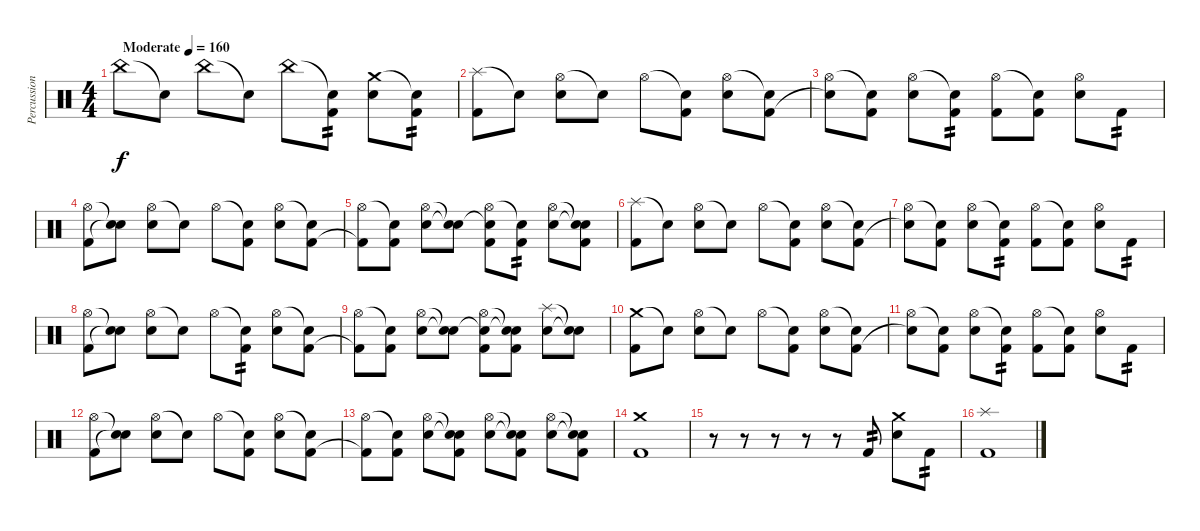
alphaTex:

\track ("Percussion" "Percussion") {instrument percussion}
\staff {score}
\articulation defaults
\ts (4 4)
\tempo (160 "Moderate")
\clef neutral
\ks c "China (hit)".8{dy f} "Snare (hit)"{t}.8 "China (hit)".8 "Snare (hit)"{t}.8 "China (hit)".8
("Snare (hit)"{t} "Kick (hit) 2").8{tp 2} ("Crash medium (hit)" "Electric Snare (hit)").8 ("Snare (hit)"{t} "Kick (hit) 2").8{tp 2} |
("Splash (hit)" "Kick (hit) 2").8 "Snare (hit)"{t}.8 ("Hi-Hat (open)" "Electric Snare (hit)").8 "Snare (hit)"{t}.8 "Hi-Hat (open)".8 ("Snare (hit)"{t} "Kick (hit) 2").8 ("Hi-Hat (open)" "Electric Snare (hit)").8 ("Snare (hit)"{t} "Kick (hit) 2").8 |
("Hi-Hat (open)" "Snare (hit)"{t}).8 ("Snare (hit)"{t} "Kick (hit) 2").8 ("Hi-Hat (open)" "Electric Snare (hit)").8 ("Snare (hit)"{t} "Kick (hit) 2").8{tp 2} ("Hi-Hat (open)" "Kick (hit) 2").8 ("Snare (hit)"{t} "Kick (hit) 2").8 ("Hi-Hat (open)" "Electric Snare (hit)").8 "Kick (hit) 2".8{tp 2} |
("Hi-Hat (open)" "Kick (hit) 2").8 ("Snare (hit)"{t} "Snare (hit)"{t}).8 ("Hi-Hat (open)" "Electric Snare (hit)").8 "Snare (hit)"{t}.8 "Hi-Hat (open)".8 ("Snare (hit)"{t} "Kick (hit) 2").8 ("Hi-Hat (open)" "Electric Snare (hit)").8 ("Snare (hit)"{t} "Kick (hit) 2").8 |
("Hi-Hat (open)" "Kick (hit) 2"{t}).8 ("Snare (hit)"{t} "Kick (hit) 2").8 ("Hi-Hat (open)" "Electric Snare (hit)").8 ("Snare (hit)"{t} "Snare (hit)"{t}).8 ("Hi-Hat (open)" "Snare (hit)"{t} "Kick (hit) 2").8 ("Snare (hit)"{t} "Kick (hit) 2").8{tp 2} ("Hi-Hat (open)" "Electric Snare (hit)").8 ("Snare (hit)"{t} "Snare (hit)"{t} "Kick (hit) 2").8 |
("Splash (hit)" "Kick (hit) 2").8 "Snare (hit)"{t}.8 ("Hi-Hat (open)" "Electric Snare (hit)").8 "Snare (hit)"{t}.8 "Hi-Hat (open)".8 ("Snare (hit)"{t} "Kick (hit) 2").8 ("Hi-Hat (open)" "Electric Snare (hit)").8 ("Snare (hit)"{t} "Kick (hit) 2").8 |
("Hi-Hat (open)" "Snare (hit)"{t}).8 ("Snare (hit)"{t} "Kick (hit) 2").8 ("Hi-Hat (open)" "Electric Snare (hit)").8 ("Snare (hit)"{t} "Kick (hit) 2").8{tp 2} ("Hi-Hat (open)" "Kick (hit) 2").8 ("Snare (hit)"{t} "Kick (hit) 2").8 ("Hi-Hat (open)" "Electric Snare (hit)").8 "Kick (hit) 2".8{tp 2} |
("Hi-Hat (open)" "Kick (hit) 2").8 ("Snare (hit)"{t} "Snare (hit)"{t}).8 ("Hi-Hat (open)" "Electric Snare (hit)").8 "Snare (hit)"{t}.8 "Hi-Hat (open)".8 ("Snare (hit)"{t} "Kick (hit) 2").8{tp 2} ("Hi-Hat (open)" "Electric Snare (hit)").8 ("Snare (hit)"{t} "Kick (hit) 2").8 |
("Hi-Hat (open)" "Kick (hit) 2"{t}).8 ("Snare (hit)"{t} "Kick (hit) 2").8 ("Hi-Hat (open)" "Electric Snare (hit)").8 ("Snare (hit)"{t} "Snare (hit)"{t}).8 ("Hi-Hat (open)" "Snare (hit)"{t} "Kick (hit) 2").8 ("Snare (hit)"{t} "Snare (hit)"{t} "Kick (hit) 2").8 ("Splash (hit)" "Electric Snare (hit)").8 ("Snare (hit)"{t} "Snare (hit)"{t}).8 |
("Crash medium (hit)" "Kick (hit) 2").8 "Snare (hit)"{t}.8 ("Hi-Hat (open)" "Electric Snare (hit)").8 "Snare (hit)"{t}.8 "Hi-Hat (open)".8 ("Snare (hit)"{t} "Kick (hit) 2").8 ("Hi-Hat (open)" "Electric Snare (hit)").8 ("Snare (hit)"{t} "Kick (hit) 2").8 |
("Hi-Hat (open)" "Snare (hit)"{t}).8 ("Snare (hit)"{t} "Kick (hit) 2").8 ("Hi-Hat (open)" "Electric Snare (hit)").8 ("Snare (hit)"{t} "Kick (hit) 2").8{tp 2} ("Hi-Hat (open)" "Kick (hit) 2").8 ("Snare (hit)"{t} "Kick (hit) 2").8 ("Hi-Hat (open)" "Electric Snare (hit)").8 "Kick (hit) 2".8{tp 2} |
("Hi-Hat (open)" "Kick (hit) 2").8 ("Snare (hit)"{t} "Snare (hit)"{t}).8 ("Hi-Hat (open)" "Electric Snare (hit)").8 "Snare (hit)"{t}.8 "Hi-Hat (open)".8 ("Snare (hit)"{t} "Kick (hit) 2").8 ("Hi-Hat (open)" "Electric Snare (hit)").8 ("Snare (hit)"{t} "Kick (hit) 2").8 |
("Hi-Hat (open)" "Kick (hit) 2"{t}).8 ("Snare (hit)"{t} "Kick (hit) 2").8 ("Hi-Hat (open)" "Electric Snare (hit)").8 ("Snare (hit)"{t} "Snare (hit)"{t} "Kick (hit) 2").8 ("Hi-Hat (open)" "Electric Snare (hit)").8 ("Snare (hit)"{t} "Snare (hit)"{t} "Kick (hit) 2").8 ("Hi-Hat (open)" "Electric Snare (hit)").8 ("Snare (hit)"{t} "Snare (hit)"{t} "Kick (hit) 2").8 |
("Crash medium (hit)" "Kick (hit) 2").1 |
r.8 r.8 r.8 r.8 r.8 "Kick (hit) 2".8{tp 2} ("Crash medium (hit)" "Electric Snare (hit)").8 "Kick (hit) 2".8{tp 2} |
("Splash (hit)" "Kick (hit) 2").1
